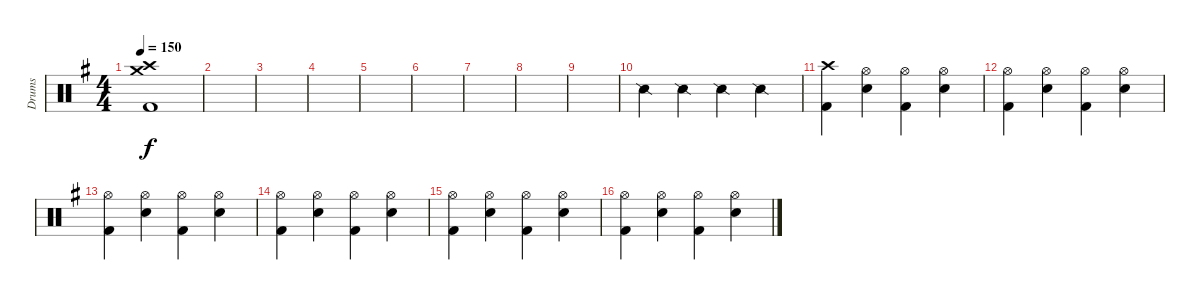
\track ("Drums" "Drums") {instrument percussion}
\staff {score}
\articulation defaults
\ts (4 4)
\tempo 150
\clef neutral
\ks g
("Crash high (hit)" "Crash medium (hit)" "Kick (hit) 2").1{dy f} |
|
|
|
|
|
|
|
|
"Snare (side stick) 2".4 "Snare (side stick) 2".4 "Snare (side stick) 2".4 "Snare (side stick) 2".4 |
("Crash high (hit)" "Kick (hit) 2").4 ("Hi-Hat (open)" "Electric Snare (hit)").4 ("Hi-Hat (open)" "Kick (hit) 2").4 ("Hi-Hat (open)" "Electric Snare (hit)").4 |
("Hi-Hat (open)" "Kick (hit) 2").4 ("Hi-Hat (open)" "Electric Snare (hit)").4 ("Hi-Hat (open)" "Kick (hit) 2").4 ("Hi-Hat (open)" "Electric Snare (hit)").4 |
("Hi-Hat (open)" "Kick (hit) 2").4 ("Hi-Hat (open)" "Electric Snare (hit)").4 ("Hi-Hat (open)" "Kick (hit) 2").4 ("Hi-Hat (open)" "Electric Snare (hit)").4 |
("Hi-Hat (open)" "Kick (hit) 2").4 ("Hi-Hat (open)" "Electric Snare (hit)").4 ("Hi-Hat (open)" "Kick (hit) 2").4 ("Hi-Hat (open)" "Electric Snare (hit)").4 |
("Hi-Hat (open)" "Kick (hit) 2").4 ("Hi-Hat (open)" "Electric Snare (hit)").4 ("Hi-Hat (open)" "Kick (hit) 2").4 ("Hi-Hat (open)" "Electric Snare (hit)").4 |
("Hi-Hat (open)" "Kick (hit) 2").4 ("Hi-Hat (open)" "Electric Snare (hit)").4 ("Hi-Hat (open)" "Kick (hit) 2").4 ("Hi-Hat (open)" "Electric Snare (hit)").4
